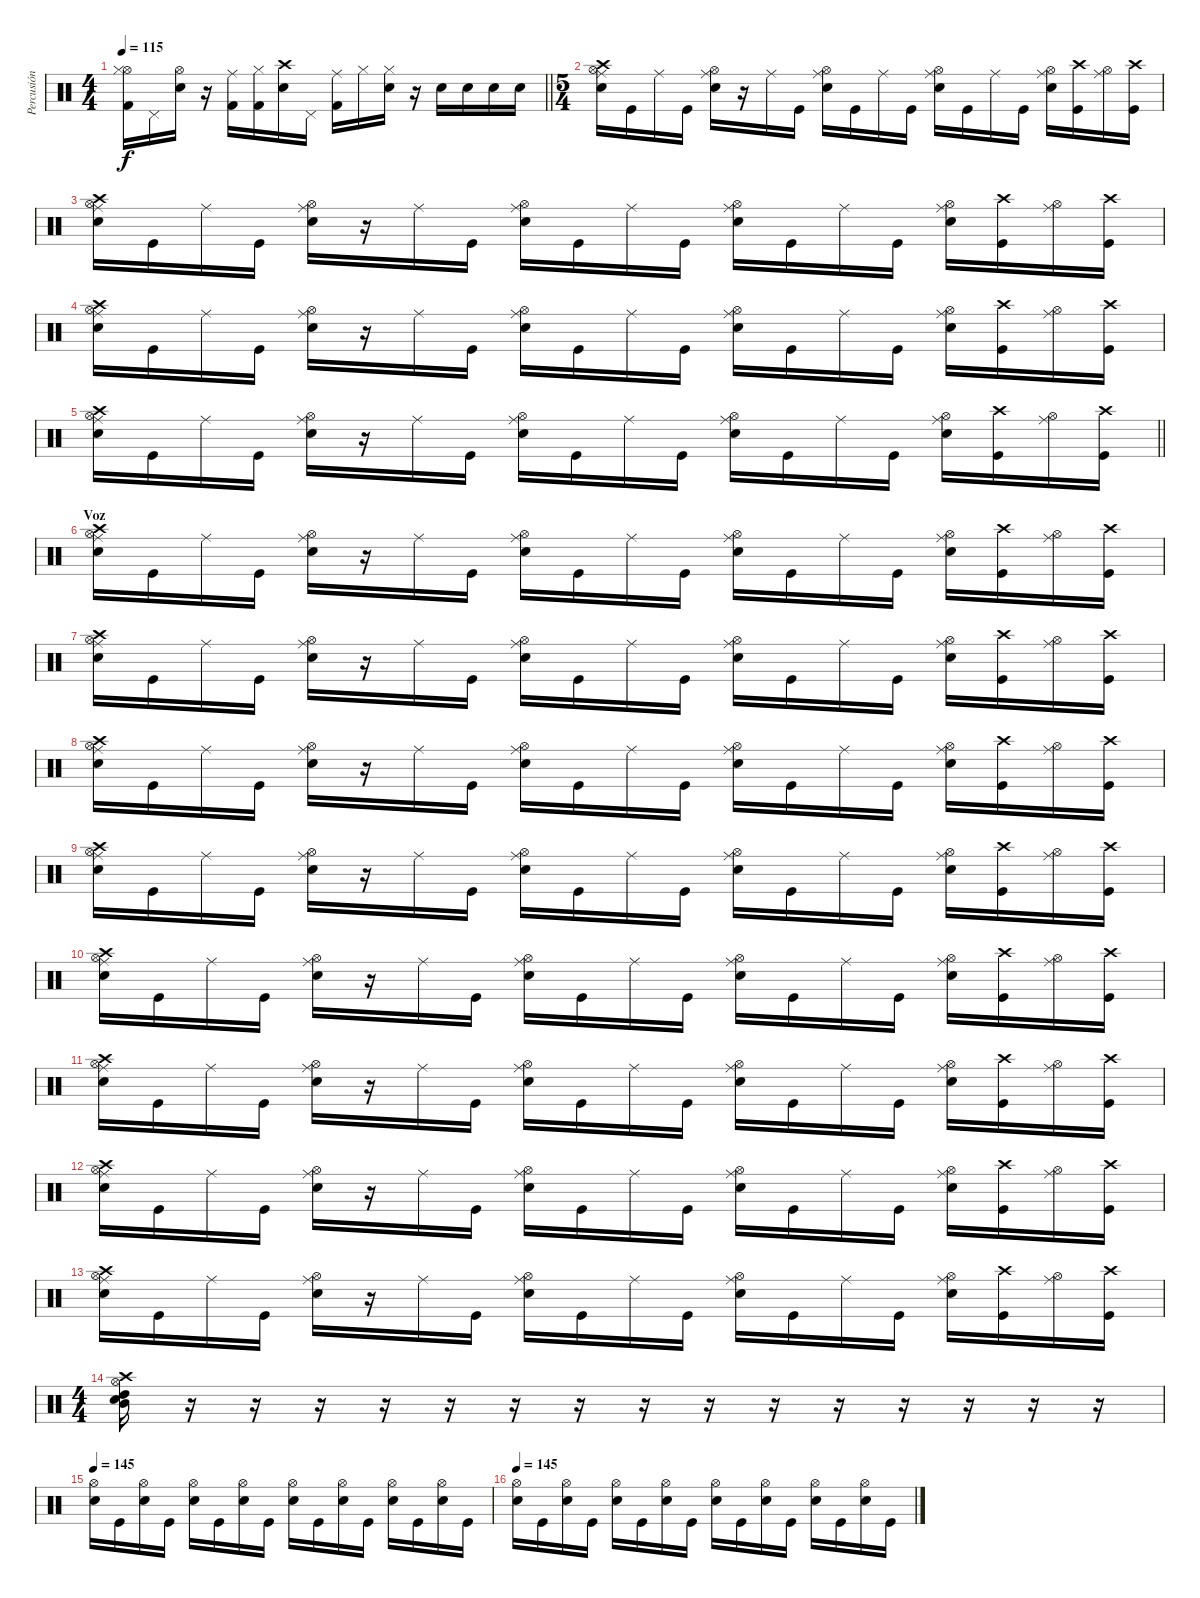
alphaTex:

\track ("Percusión" "Percusión") {instrument percussion}
\staff {score}
\articulation defaults
\ts (4 4)
\tempo 115
\clef neutral
\barLineRight lightlight
\ks c
("Kick (hit) 2" "Hi-Hat (open)" "Hi-Hat (closed)").16{dy f} "Pedal Hi-Hat (hit)".16 ("Hi-Hat (open)" "Electric Snare (hit)").16 r.16 ("Kick (hit) 2" "Ride (middle)").16 ("Kick (hit) 2" "Hi-Hat (closed)").16 ("Crash high (hit)" "Electric Snare (hit)").16 "Pedal Hi-Hat (hit)".16 ("Kick (hit) 2" "Ride (middle)").16 "Hi-Hat (closed)".16 ("Electric Snare (hit)" "Hi-Hat (closed)").16 r.16 "Electric Snare (hit)".16 "Electric Snare (hit)".16 "Electric Snare (hit)".16 "Electric Snare (hit)".16 |
\ts (5 4)
\section ("" "")
("Ride (middle)" "Electric Snare (hit)" "Hi-Hat (open)" "Crash high (hit)").16 "Kick (hit)".16 "Ride (middle)".16 "Kick (hit)".16 ("Ride (middle)" "Electric Snare (hit)" "Hi-Hat (open)").16 r.16 "Ride (middle)".16 "Kick (hit)".16 ("Ride (middle)" "Electric Snare (hit)" "Hi-Hat (open)").16 "Kick (hit)".16 "Ride (middle)".16 "Kick (hit)".16 ("Ride (middle)" "Electric Snare (hit)" "Hi-Hat (open)").16 "Kick (hit)".16 "Ride (middle)".16 "Kick (hit)".16 ("Ride (middle)" "Electric Snare (hit)" "Hi-Hat (open)").16 ("Kick (hit)" "Crash high (hit)").16 ("Ride (middle)" "Hi-Hat (open)").16 ("Kick (hit)" "Crash high (hit)").16 |
("Ride (middle)" "Electric Snare (hit)" "Hi-Hat (open)" "Crash high (hit)").16 "Kick (hit)".16 "Ride (middle)".16 "Kick (hit)".16 ("Ride (middle)" "Electric Snare (hit)" "Hi-Hat (open)").16 r.16 "Ride (middle)".16 "Kick (hit)".16 ("Ride (middle)" "Electric Snare (hit)" "Hi-Hat (open)").16 "Kick (hit)".16 "Ride (middle)".16 "Kick (hit)".16 ("Ride (middle)" "Electric Snare (hit)" "Hi-Hat (open)").16 "Kick (hit)".16 "Ride (middle)".16 "Kick (hit)".16 ("Ride (middle)" "Electric Snare (hit)" "Hi-Hat (open)").16 ("Kick (hit)" "Crash high (hit)").16 ("Ride (middle)" "Hi-Hat (open)").16 ("Kick (hit)" "Crash high (hit)").16 |
("Ride (middle)" "Electric Snare (hit)" "Hi-Hat (open)" "Crash high (hit)").16 "Kick (hit)".16 "Ride (middle)".16 "Kick (hit)".16 ("Ride (middle)" "Electric Snare (hit)" "Hi-Hat (open)").16 r.16 "Ride (middle)".16 "Kick (hit)".16 ("Ride (middle)" "Electric Snare (hit)" "Hi-Hat (open)").16 "Kick (hit)".16 "Ride (middle)".16 "Kick (hit)".16 ("Ride (middle)" "Electric Snare (hit)" "Hi-Hat (open)").16 "Kick (hit)".16 "Ride (middle)".16 "Kick (hit)".16 ("Ride (middle)" "Electric Snare (hit)" "Hi-Hat (open)").16 ("Kick (hit)" "Crash high (hit)").16 ("Ride (middle)" "Hi-Hat (open)").16 ("Kick (hit)" "Crash high (hit)").16 |
\barLineRight lightlight
("Ride (middle)" "Electric Snare (hit)" "Hi-Hat (open)" "Crash high (hit)").16 "Kick (hit)".16 "Ride (middle)".16 "Kick (hit)".16 ("Ride (middle)" "Electric Snare (hit)" "Hi-Hat (open)").16 r.16 "Ride (middle)".16 "Kick (hit)".16 ("Ride (middle)" "Electric Snare (hit)" "Hi-Hat (open)").16 "Kick (hit)".16 "Ride (middle)".16 "Kick (hit)".16 ("Ride (middle)" "Electric Snare (hit)" "Hi-Hat (open)").16 "Kick (hit)".16 "Ride (middle)".16 "Kick (hit)".16 ("Ride (middle)" "Electric Snare (hit)" "Hi-Hat (open)").16 ("Kick (hit)" "Crash high (hit)").16 ("Ride (middle)" "Hi-Hat (open)").16 ("Kick (hit)" "Crash high (hit)").16 |
\section ("" "Voz")
("Ride (middle)" "Electric Snare (hit)" "Hi-Hat (open)" "Crash high (hit)").16 "Kick (hit)".16 "Ride (middle)".16 "Kick (hit)".16 ("Ride (middle)" "Electric Snare (hit)" "Hi-Hat (open)").16 r.16 "Ride (middle)".16 "Kick (hit)".16 ("Ride (middle)" "Electric Snare (hit)" "Hi-Hat (open)").16 "Kick (hit)".16 "Ride (middle)".16 "Kick (hit)".16 ("Ride (middle)" "Electric Snare (hit)" "Hi-Hat (open)").16 "Kick (hit)".16 "Ride (middle)".16 "Kick (hit)".16 ("Ride (middle)" "Electric Snare (hit)" "Hi-Hat (open)").16 ("Kick (hit)" "Crash high (hit)").16 ("Ride (middle)" "Hi-Hat (open)").16 ("Kick (hit)" "Crash high (hit)").16 |
("Ride (middle)" "Electric Snare (hit)" "Hi-Hat (open)" "Crash high (hit)").16 "Kick (hit)".16 "Ride (middle)".16 "Kick (hit)".16 ("Ride (middle)" "Electric Snare (hit)" "Hi-Hat (open)").16 r.16 "Ride (middle)".16 "Kick (hit)".16 ("Ride (middle)" "Electric Snare (hit)" "Hi-Hat (open)").16 "Kick (hit)".16 "Ride (middle)".16 "Kick (hit)".16 ("Ride (middle)" "Electric Snare (hit)" "Hi-Hat (open)").16 "Kick (hit)".16 "Ride (middle)".16 "Kick (hit)".16 ("Ride (middle)" "Electric Snare (hit)" "Hi-Hat (open)").16 ("Kick (hit)" "Crash high (hit)").16 ("Ride (middle)" "Hi-Hat (open)").16 ("Kick (hit)" "Crash high (hit)").16 |
("Ride (middle)" "Electric Snare (hit)" "Hi-Hat (open)" "Crash high (hit)").16 "Kick (hit)".16 "Ride (middle)".16 "Kick (hit)".16 ("Ride (middle)" "Electric Snare (hit)" "Hi-Hat (open)").16 r.16 "Ride (middle)".16 "Kick (hit)".16 ("Ride (middle)" "Electric Snare (hit)" "Hi-Hat (open)").16 "Kick (hit)".16 "Ride (middle)".16 "Kick (hit)".16 ("Ride (middle)" "Electric Snare (hit)" "Hi-Hat (open)").16 "Kick (hit)".16 "Ride (middle)".16 "Kick (hit)".16 ("Ride (middle)" "Electric Snare (hit)" "Hi-Hat (open)").16 ("Kick (hit)" "Crash high (hit)").16 ("Ride (middle)" "Hi-Hat (open)").16 ("Kick (hit)" "Crash high (hit)").16 |
("Ride (middle)" "Electric Snare (hit)" "Hi-Hat (open)" "Crash high (hit)").16 "Kick (hit)".16 "Ride (middle)".16 "Kick (hit)".16 ("Ride (middle)" "Electric Snare (hit)" "Hi-Hat (open)").16 r.16 "Ride (middle)".16 "Kick (hit)".16 ("Ride (middle)" "Electric Snare (hit)" "Hi-Hat (open)").16 "Kick (hit)".16 "Ride (middle)".16 "Kick (hit)".16 ("Ride (middle)" "Electric Snare (hit)" "Hi-Hat (open)").16 "Kick (hit)".16 "Ride (middle)".16 "Kick (hit)".16 ("Ride (middle)" "Electric Snare (hit)" "Hi-Hat (open)").16 ("Kick (hit)" "Crash high (hit)").16 ("Ride (middle)" "Hi-Hat (open)").16 ("Kick (hit)" "Crash high (hit)").16 |
("Ride (middle)" "Electric Snare (hit)" "Hi-Hat (open)" "Crash high (hit)").16 "Kick (hit)".16 "Ride (middle)".16 "Kick (hit)".16 ("Ride (middle)" "Electric Snare (hit)" "Hi-Hat (open)").16 r.16 "Ride (middle)".16 "Kick (hit)".16 ("Ride (middle)" "Electric Snare (hit)" "Hi-Hat (open)").16 "Kick (hit)".16 "Ride (middle)".16 "Kick (hit)".16 ("Ride (middle)" "Electric Snare (hit)" "Hi-Hat (open)").16 "Kick (hit)".16 "Ride (middle)".16 "Kick (hit)".16 ("Ride (middle)" "Electric Snare (hit)" "Hi-Hat (open)").16 ("Kick (hit)" "Crash high (hit)").16 ("Ride (middle)" "Hi-Hat (open)").16 ("Kick (hit)" "Crash high (hit)").16 |
("Ride (middle)" "Electric Snare (hit)" "Hi-Hat (open)" "Crash high (hit)").16 "Kick (hit)".16 "Ride (middle)".16 "Kick (hit)".16 ("Ride (middle)" "Electric Snare (hit)" "Hi-Hat (open)").16 r.16 "Ride (middle)".16 "Kick (hit)".16 ("Ride (middle)" "Electric Snare (hit)" "Hi-Hat (open)").16 "Kick (hit)".16 "Ride (middle)".16 "Kick (hit)".16 ("Ride (middle)" "Electric Snare (hit)" "Hi-Hat (open)").16 "Kick (hit)".16 "Ride (middle)".16 "Kick (hit)".16 ("Ride (middle)" "Electric Snare (hit)" "Hi-Hat (open)").16 ("Kick (hit)" "Crash high (hit)").16 ("Ride (middle)" "Hi-Hat (open)").16 ("Kick (hit)" "Crash high (hit)").16 |
("Ride (middle)" "Electric Snare (hit)" "Hi-Hat (open)" "Crash high (hit)").16 "Kick (hit)".16 "Ride (middle)".16 "Kick (hit)".16 ("Ride (middle)" "Electric Snare (hit)" "Hi-Hat (open)").16 r.16 "Ride (middle)".16 "Kick (hit)".16 ("Ride (middle)" "Electric Snare (hit)" "Hi-Hat (open)").16 "Kick (hit)".16 "Ride (middle)".16 "Kick (hit)".16 ("Ride (middle)" "Electric Snare (hit)" "Hi-Hat (open)").16 "Kick (hit)".16 "Ride (middle)".16 "Kick (hit)".16 ("Ride (middle)" "Electric Snare (hit)" "Hi-Hat (open)").16 ("Kick (hit)" "Crash high (hit)").16 ("Ride (middle)" "Hi-Hat (open)").16 ("Kick (hit)" "Crash high (hit)").16 |
("Ride (middle)" "Electric Snare (hit)" "Hi-Hat (open)" "Crash high (hit)").16 "Kick (hit)".16 "Ride (middle)".16 "Kick (hit)".16 ("Ride (middle)" "Electric Snare (hit)" "Hi-Hat (open)").16 r.16 "Ride (middle)".16 "Kick (hit)".16 ("Ride (middle)" "Electric Snare (hit)" "Hi-Hat (open)").16 "Kick (hit)".16 "Ride (middle)".16 "Kick (hit)".16 ("Ride (middle)" "Electric Snare (hit)" "Hi-Hat (open)").16 "Kick (hit)".16 "Ride (middle)".16 "Kick (hit)".16 ("Ride (middle)" "Electric Snare (hit)" "Hi-Hat (open)").16 ("Kick (hit)" "Crash high (hit)").16 ("Ride (middle)" "Hi-Hat (open)").16 ("Kick (hit)" "Crash high (hit)").16 |
\ts (4 4)
("Hi-Hat (open)" "Mid Tom (hit)" "High Tom (hit)" "Crash high (hit)" "Snare (hit) 2").16 r.16 r.16 r.16 r.16 r.16 r.16 r.16 r.16 r.16 r.16 r.16 r.16 r.16 r.16 r.16 |
\tempo 145
("Hi-Hat (open)" "Snare (hit) 2").16 "Kick (hit)".16 ("Hi-Hat (open)" "Snare (hit) 2").16 "Kick (hit)".16 ("Hi-Hat (open)" "Snare (hit) 2").16 "Kick (hit)".16 ("Hi-Hat (open)" "Snare (hit) 2").16 "Kick (hit)".16 ("Hi-Hat (open)" "Snare (hit) 2").16 "Kick (hit)".16 ("Hi-Hat (open)" "Snare (hit) 2").16 "Kick (hit)".16 ("Hi-Hat (open)" "Snare (hit) 2").16 "Kick (hit)".16 ("Hi-Hat (open)" "Snare (hit) 2").16 "Kick (hit)".16 |
\tempo 145
("Hi-Hat (open)" "Snare (hit) 2").16 "Kick (hit)".16 ("Hi-Hat (open)" "Snare (hit) 2").16 "Kick (hit)".16 ("Hi-Hat (open)" "Snare (hit) 2").16 "Kick (hit)".16 ("Hi-Hat (open)" "Snare (hit) 2").16 "Kick (hit)".16 ("Hi-Hat (open)" "Snare (hit) 2").16 "Kick (hit)".16 ("Hi-Hat (open)" "Snare (hit) 2").16 "Kick (hit)".16 ("Hi-Hat (open)" "Snare (hit) 2").16 "Kick (hit)".16 ("Hi-Hat (open)" "Snare (hit) 2").16 "Kick (hit)".16
